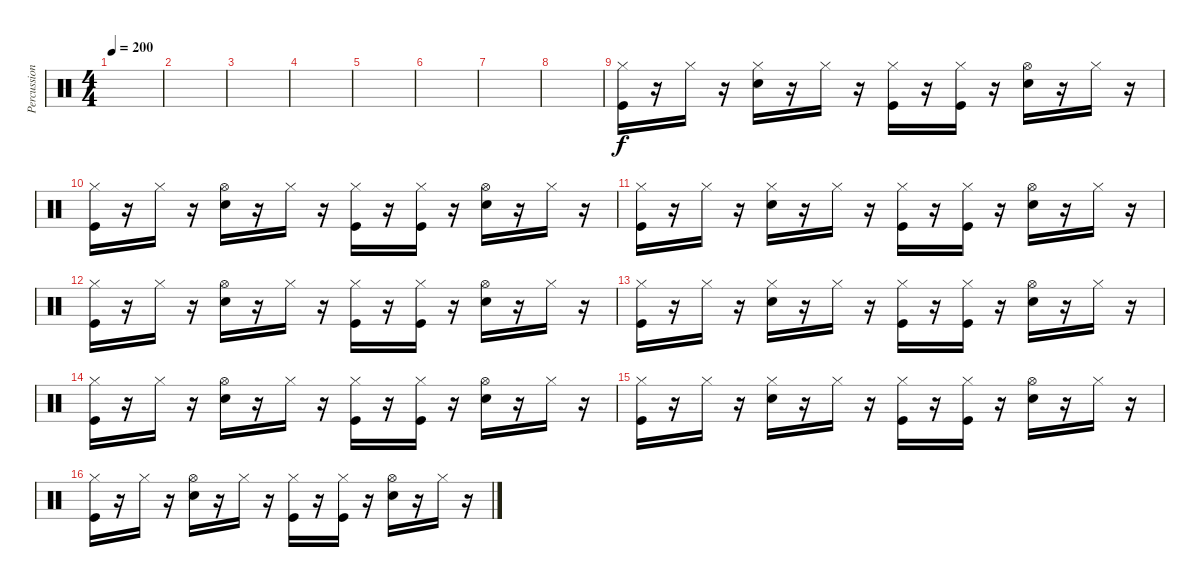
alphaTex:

\track ("Percussion" "Percussion") {instrument percussion}
\staff {score}
\articulation defaults
\ts (4 4)
\tempo 200
\clef neutral
\ks c
|
|
|
|
|
|
|
|
("Hi-Hat (closed)" "Kick (hit)").16 r.16 "Hi-Hat (closed)".16 r.16 ("Hi-Hat (closed)" "Snare (hit) 2").16 r.16 "Hi-Hat (closed)".16 r.16 ("Hi-Hat (closed)" "Kick (hit)").16 r.16 ("Kick (hit)" "Hi-Hat (closed)").16 r.16 ("Hi-Hat (open)" "Snare (hit) 2").16 r.16 "Hi-Hat (closed)".16 r.16 |
("Hi-Hat (closed)" "Kick (hit)").16 r.16 "Hi-Hat (closed)".16 r.16 ("Hi-Hat (open)" "Snare (hit) 2").16 r.16 "Hi-Hat (closed)".16 r.16 ("Hi-Hat (closed)" "Kick (hit)").16 r.16 ("Kick (hit)" "Hi-Hat (closed)").16 r.16 ("Hi-Hat (open)" "Snare (hit) 2").16 r.16 "Hi-Hat (closed)".16 r.16 |
("Hi-Hat (closed)" "Kick (hit)").16 r.16 "Hi-Hat (closed)".16 r.16 ("Hi-Hat (closed)" "Snare (hit) 2").16 r.16 "Hi-Hat (closed)".16 r.16 ("Hi-Hat (closed)" "Kick (hit)").16 r.16 ("Kick (hit)" "Hi-Hat (closed)").16 r.16 ("Hi-Hat (open)" "Snare (hit) 2").16 r.16 "Hi-Hat (closed)".16 r.16 |
("Hi-Hat (closed)" "Kick (hit)").16 r.16 "Hi-Hat (closed)".16 r.16 ("Hi-Hat (open)" "Snare (hit) 2").16 r.16 "Hi-Hat (closed)".16 r.16 ("Hi-Hat (closed)" "Kick (hit)").16 r.16 ("Kick (hit)" "Hi-Hat (closed)").16 r.16 ("Hi-Hat (open)" "Snare (hit) 2").16 r.16 "Hi-Hat (closed)".16 r.16 |
("Hi-Hat (closed)" "Kick (hit)").16 r.16 "Hi-Hat (closed)".16 r.16 ("Hi-Hat (closed)" "Snare (hit) 2").16 r.16 "Hi-Hat (closed)".16 r.16 ("Hi-Hat (closed)" "Kick (hit)").16 r.16 ("Kick (hit)" "Hi-Hat (closed)").16 r.16 ("Hi-Hat (open)" "Snare (hit) 2").16 r.16 "Hi-Hat (closed)".16 r.16 |
("Hi-Hat (closed)" "Kick (hit)").16 r.16 "Hi-Hat (closed)".16 r.16 ("Hi-Hat (open)" "Snare (hit) 2").16 r.16 "Hi-Hat (closed)".16 r.16 ("Hi-Hat (closed)" "Kick (hit)").16 r.16 ("Kick (hit)" "Hi-Hat (closed)").16 r.16 ("Hi-Hat (open)" "Snare (hit) 2").16 r.16 "Hi-Hat (closed)".16 r.16 |
("Hi-Hat (closed)" "Kick (hit)").16 r.16 "Hi-Hat (closed)".16 r.16 ("Hi-Hat (closed)" "Snare (hit) 2").16 r.16 "Hi-Hat (closed)".16 r.16 ("Hi-Hat (closed)" "Kick (hit)").16 r.16 ("Kick (hit)" "Hi-Hat (closed)").16 r.16 ("Hi-Hat (open)" "Snare (hit) 2").16 r.16 "Hi-Hat (closed)".16 r.16 |
("Hi-Hat (closed)" "Kick (hit)").16 r.16 "Hi-Hat (closed)".16 r.16 ("Hi-Hat (open)" "Snare (hit) 2").16 r.16 "Hi-Hat (closed)".16 r.16 ("Hi-Hat (closed)" "Kick (hit)").16 r.16 ("Kick (hit)" "Hi-Hat (closed)").16 r.16 ("Hi-Hat (open)" "Snare (hit) 2").16 r.16 "Hi-Hat (closed)".16 r.16
